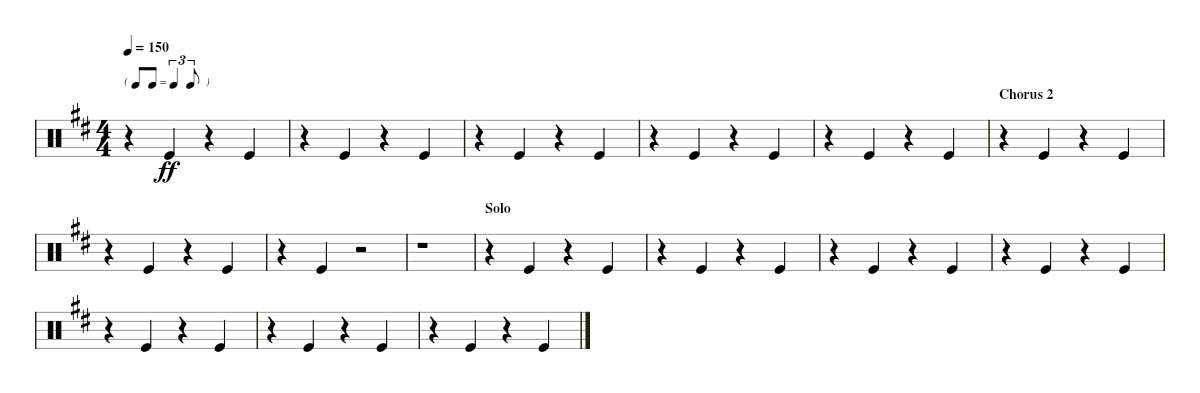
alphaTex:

\bracketExtendMode nobrackets
\singleTrackTrackNamePolicy hidden
\multiTrackTrackNamePolicy hidden
\firstSystemTrackNameMode fullname
\firstSystemTrackNameOrientation horizontal
\otherSystemsTrackNameOrientation horizontal
\defaultBarNumberDisplay Hide
\track ("Hand Clap" "H-Clap") {instrument percussion}
\staff {score}
\articulation defaults
\ts (4 4)
\tf triplet8th
\tempo 150
\clef neutral
\ks d
r.4{dy ff} "Kick (hit)".4 r.4 "Kick (hit)".4 |
r.4 "Kick (hit)".4 r.4 "Kick (hit)".4 |
r.4 "Kick (hit)".4 r.4 "Kick (hit)".4 |
r.4 "Kick (hit)".4 r.4 "Kick (hit)".4 |
r.4 "Kick (hit)".4 r.4 "Kick (hit)".4 |
\section ("" "Chorus 2")
r.4 "Kick (hit)".4 r.4 "Kick (hit)".4 |
r.4 "Kick (hit)".4 r.4 "Kick (hit)".4 |
r.4 "Kick (hit)".4 r.2 |
r.1 |
\section ("" "Solo")
r.4 "Kick (hit)".4 r.4 "Kick (hit)".4 |
r.4 "Kick (hit)".4 r.4 "Kick (hit)".4 |
r.4 "Kick (hit)".4 r.4 "Kick (hit)".4 |
r.4 "Kick (hit)".4 r.4 "Kick (hit)".4 |
r.4 "Kick (hit)".4 r.4 "Kick (hit)".4 |
r.4 "Kick (hit)".4 r.4 "Kick (hit)".4 |
r.4 "Kick (hit)".4 r.4 "Kick (hit)".4
